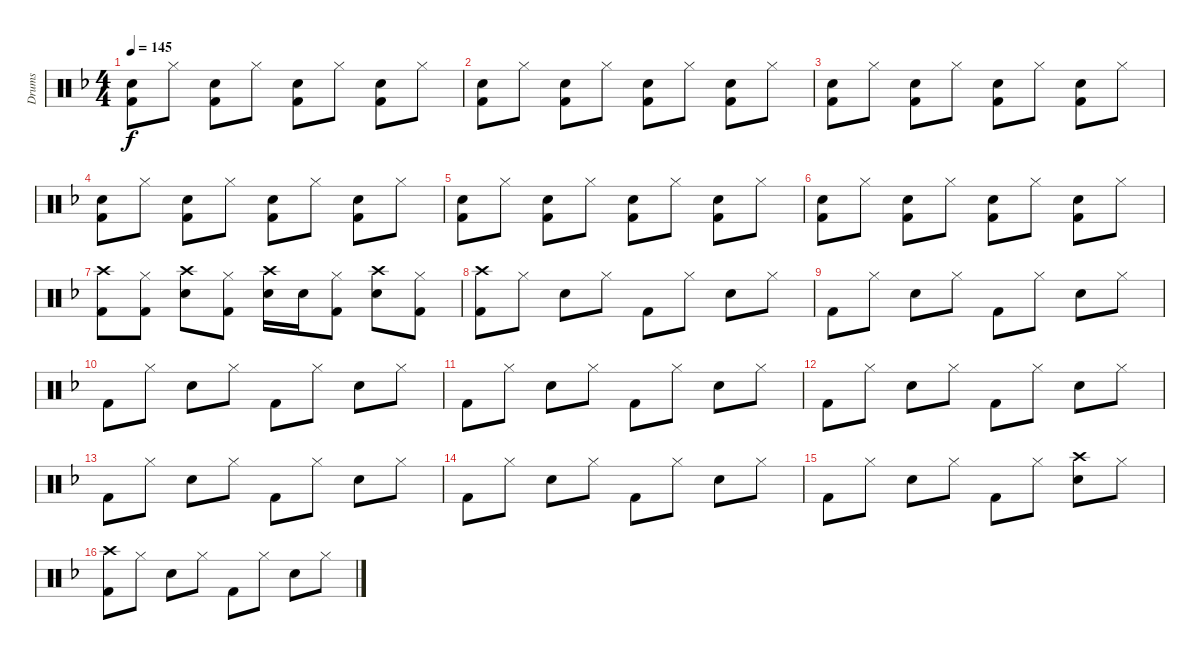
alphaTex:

\track ("Drums" "Drums") {instrument percussion}
\staff {score}
\articulation defaults
\ts (4 4)
\tempo 145
\clef neutral
\ks f
("Kick (hit) 2" "Snare (hit) 2").8{dy f} "Hi-Hat (closed)".8 ("Kick (hit) 2" "Snare (hit) 2").8 "Hi-Hat (closed)".8 ("Kick (hit) 2" "Snare (hit) 2").8 "Hi-Hat (closed)".8 ("Kick (hit) 2" "Snare (hit) 2").8 "Hi-Hat (closed)".8 |
("Kick (hit) 2" "Snare (hit) 2").8 "Hi-Hat (closed)".8 ("Kick (hit) 2" "Snare (hit) 2").8 "Hi-Hat (closed)".8 ("Kick (hit) 2" "Snare (hit) 2").8 "Hi-Hat (closed)".8 ("Kick (hit) 2" "Snare (hit) 2").8 "Hi-Hat (closed)".8 |
("Kick (hit) 2" "Snare (hit) 2").8 "Hi-Hat (closed)".8 ("Kick (hit) 2" "Snare (hit) 2").8 "Hi-Hat (closed)".8 ("Kick (hit) 2" "Snare (hit) 2").8 "Hi-Hat (closed)".8 ("Kick (hit) 2" "Snare (hit) 2").8 "Hi-Hat (closed)".8 |
("Kick (hit) 2" "Snare (hit) 2").8 "Hi-Hat (closed)".8 ("Kick (hit) 2" "Snare (hit) 2").8 "Hi-Hat (closed)".8 ("Kick (hit) 2" "Snare (hit) 2").8 "Hi-Hat (closed)".8 ("Kick (hit) 2" "Snare (hit) 2").8 "Hi-Hat (closed)".8 |
("Kick (hit) 2" "Snare (hit) 2").8 "Hi-Hat (closed)".8 ("Kick (hit) 2" "Snare (hit) 2").8 "Hi-Hat (closed)".8 ("Kick (hit) 2" "Snare (hit) 2").8 "Hi-Hat (closed)".8 ("Kick (hit) 2" "Snare (hit) 2").8 "Hi-Hat (closed)".8 |
("Kick (hit) 2" "Snare (hit) 2").8 "Hi-Hat (closed)".8 ("Kick (hit) 2" "Snare (hit) 2").8 "Hi-Hat (closed)".8 ("Kick (hit) 2" "Snare (hit) 2").8 "Hi-Hat (closed)".8 ("Kick (hit) 2" "Snare (hit) 2").8 "Hi-Hat (closed)".8 |
("Kick (hit) 2" "Crash high (hit)").8 ("Hi-Hat (closed)" "Kick (hit) 2").8 ("Snare (hit) 2" "Crash high (hit)").8 ("Hi-Hat (closed)" "Kick (hit) 2").8 ("Crash high (hit)" "Snare (hit) 2").16 "Snare (hit) 2".16 ("Kick (hit) 2" "Hi-Hat (closed)").8 ("Snare (hit) 2" "Crash high (hit)").8 ("Kick (hit) 2" "Hi-Hat (closed)").8 |
("Crash high (hit)" "Kick (hit) 2").8 "Hi-Hat (closed)".8 "Snare (hit) 2".8 "Hi-Hat (closed)".8 "Kick (hit) 2".8 "Hi-Hat (closed)".8 "Snare (hit) 2".8 "Hi-Hat (closed)".8 |
"Kick (hit) 2".8 "Hi-Hat (closed)".8 "Snare (hit) 2".8 "Hi-Hat (closed)".8 "Kick (hit) 2".8 "Hi-Hat (closed)".8 "Snare (hit) 2".8 "Hi-Hat (closed)".8 |
"Kick (hit) 2".8 "Hi-Hat (closed)".8 "Snare (hit) 2".8 "Hi-Hat (closed)".8 "Kick (hit) 2".8 "Hi-Hat (closed)".8 "Snare (hit) 2".8 "Hi-Hat (closed)".8 |
"Kick (hit) 2".8 "Hi-Hat (closed)".8 "Snare (hit) 2".8 "Hi-Hat (closed)".8 "Kick (hit) 2".8 "Hi-Hat (closed)".8 "Snare (hit) 2".8 "Hi-Hat (closed)".8 |
"Kick (hit) 2".8 "Hi-Hat (closed)".8 "Snare (hit) 2".8 "Hi-Hat (closed)".8 "Kick (hit) 2".8 "Hi-Hat (closed)".8 "Snare (hit) 2".8 "Hi-Hat (closed)".8 |
"Kick (hit) 2".8 "Hi-Hat (closed)".8 "Snare (hit) 2".8 "Hi-Hat (closed)".8 "Kick (hit) 2".8 "Hi-Hat (closed)".8 "Snare (hit) 2".8 "Hi-Hat (closed)".8 |
"Kick (hit) 2".8 "Hi-Hat (closed)".8 "Snare (hit) 2".8 "Hi-Hat (closed)".8 "Kick (hit) 2".8 "Hi-Hat (closed)".8 "Snare (hit) 2".8 "Hi-Hat (closed)".8 |
"Kick (hit) 2".8 "Hi-Hat (closed)".8 "Snare (hit) 2".8 "Hi-Hat (closed)".8 "Kick (hit) 2".8 "Hi-Hat (closed)".8 ("Snare (hit) 2" "Crash high (hit)").8 "Hi-Hat (closed)".8 |
("Crash high (hit)" "Kick (hit) 2").8 "Hi-Hat (closed)".8 "Snare (hit) 2".8 "Hi-Hat (closed)".8 "Kick (hit) 2".8 "Hi-Hat (closed)".8 "Snare (hit) 2".8 "Hi-Hat (closed)".8
